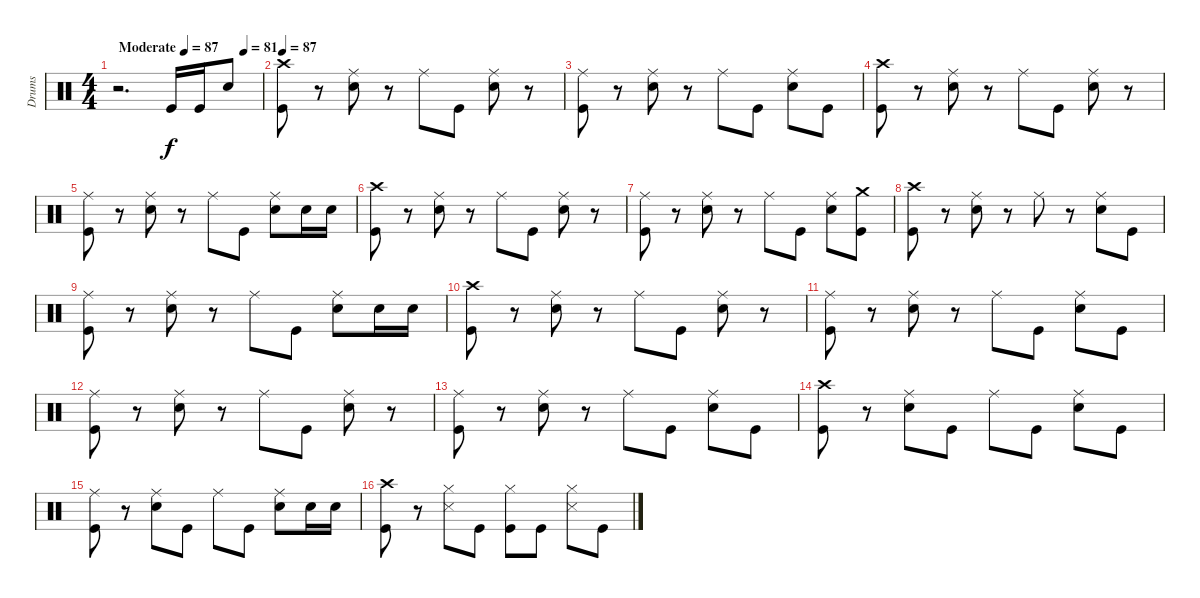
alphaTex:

\track ("Drums" "Drums") {instrument percussion}
\staff {score}
\articulation defaults
\ts (4 4)
\tempo (87 "Moderate")
\tempo (81 0.875)
\tempo (87 "Moderate")
\clef neutral
\ks c
r.2{d dy f} "Kick (hit)".16 "Kick (hit)".16 "Electric Snare (hit)".8 |
\tempo 87
("Crash high (hit)" "Kick (hit)").8 r.8 ("Ride (middle)" "Electric Snare (hit)").8 r.8 "Ride (middle)".8 "Kick (hit)".8 ("Ride (middle)" "Electric Snare (hit)").8 r.8 |
("Ride (middle)" "Kick (hit)").8 r.8 ("Ride (middle)" "Electric Snare (hit)").8 r.8 "Ride (middle)".8 "Kick (hit)".8 ("Ride (middle)" "Electric Snare (hit)").8 "Kick (hit)".8 |
("Crash high (hit)" "Kick (hit)").8 r.8 ("Ride (middle)" "Electric Snare (hit)").8 r.8 "Ride (middle)".8 "Kick (hit)".8 ("Ride (middle)" "Electric Snare (hit)").8 r.8 |
("Ride (middle)" "Kick (hit)").8 r.8 ("Ride (middle)" "Electric Snare (hit)").8 r.8 "Ride (middle)".8 "Kick (hit)".8 ("Ride (middle)" "Electric Snare (hit)").8 "Electric Snare (hit)".16 "Electric Snare (hit)".16 |
("Crash high (hit)" "Kick (hit)").8 r.8 ("Ride (middle)" "Electric Snare (hit)").8 r.8 "Ride (middle)".8 "Kick (hit)".8 ("Ride (middle)" "Electric Snare (hit)").8 r.8 |
("Ride (middle)" "Kick (hit)").8 r.8 ("Ride (middle)" "Electric Snare (hit)").8 r.8 "Ride (middle)".8 "Kick (hit)".8 ("Ride (middle)" "Electric Snare (hit)").8 ("Crash medium (hit)" "Kick (hit)").8 |
("Crash high (hit)" "Kick (hit)").8 r.8 ("Ride (middle)" "Electric Snare (hit)").8 r.8 "Ride (middle)".8 r.8 ("Ride (middle)" "Electric Snare (hit)").8 "Kick (hit)".8 |
("Ride (middle)" "Kick (hit)").8 r.8 ("Ride (middle)" "Electric Snare (hit)").8 r.8 "Ride (middle)".8 "Kick (hit)".8 ("Ride (middle)" "Electric Snare (hit)").8 "Electric Snare (hit)".16 "Electric Snare (hit)".16 |
("Crash high (hit)" "Kick (hit)").8 r.8 ("Ride (middle)" "Electric Snare (hit)").8 r.8 "Ride (middle)".8 "Kick (hit)".8 ("Ride (middle)" "Electric Snare (hit)").8 r.8 |
("Ride (middle)" "Kick (hit)").8 r.8 ("Ride (middle)" "Electric Snare (hit)").8 r.8 "Ride (middle)".8 "Kick (hit)".8 ("Ride (middle)" "Electric Snare (hit)").8 "Kick (hit)".8 |
("Ride (middle)" "Kick (hit)").8 r.8 ("Ride (middle)" "Electric Snare (hit)").8 r.8 "Ride (middle)".8 "Kick (hit)".8 ("Ride (middle)" "Electric Snare (hit)").8 r.8 |
("Ride (middle)" "Kick (hit)").8 r.8 ("Ride (middle)" "Electric Snare (hit)").8 r.8 "Ride (middle)".8 "Kick (hit)".8 ("Ride (middle)" "Electric Snare (hit)").8 "Kick (hit)".8 |
("Crash high (hit)" "Kick (hit)").8 r.8 ("Ride (middle)" "Electric Snare (hit)").8 "Kick (hit)".8 "Ride (middle)".8 "Kick (hit)".8 ("Ride (middle)" "Electric Snare (hit)").8 "Kick (hit)".8 |
("Ride (middle)" "Kick (hit)").8 r.8 ("Ride (middle)" "Electric Snare (hit)").8 "Kick (hit)".8 "Ride (middle)".8 "Kick (hit)".8 ("Ride (middle)" "Electric Snare (hit)").8 "Electric Snare (hit)".16 "Electric Snare (hit)".16 |
("Crash high (hit)" "Kick (hit)").8 r.8 ("Hi-Hat (closed)" "Snare (side stick) 3").8 "Kick (hit)".8 ("Hi-Hat (closed)" "Kick (hit)").8 "Kick (hit)".8 ("Hi-Hat (closed)" "Snare (side stick) 3").8 "Kick (hit)".8
